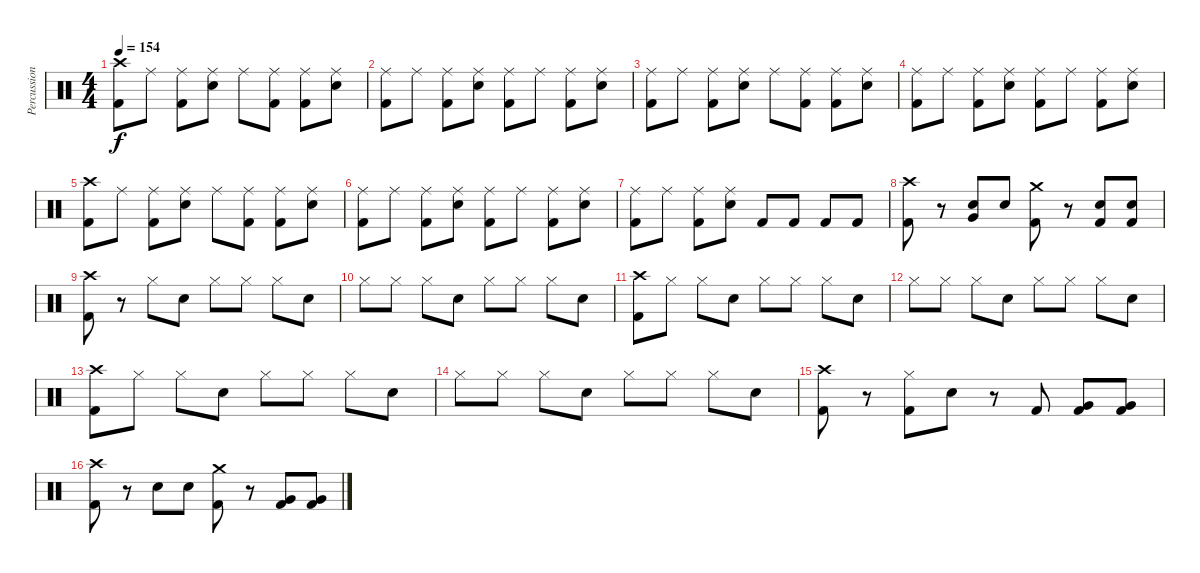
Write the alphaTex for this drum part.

\track ("Percussion" "Percussion") {instrument percussion}
\staff {score}
\articulation defaults
\ts (4 4)
\tempo 154
\clef neutral
\ks c
("Crash high (hit)" "Kick (hit) 2").8{dy f} "Ride (middle)".8 ("Ride (middle)" "Kick (hit) 2").8 ("Ride (middle)" "Electric Snare (hit)").8 "Ride (middle)".8 ("Ride (middle)" "Kick (hit) 2").8 ("Ride (middle)" "Kick (hit) 2").8 ("Ride (middle)" "Electric Snare (hit)").8 |
("Ride (middle)" "Kick (hit) 2").8 "Ride (middle)".8 ("Ride (middle)" "Kick (hit) 2").8 ("Ride (middle)" "Electric Snare (hit)").8 ("Ride (middle)" "Kick (hit) 2").8 "Ride (middle)".8 ("Ride (middle)" "Kick (hit) 2").8 ("Ride (middle)" "Electric Snare (hit)").8 |
("Ride (middle)" "Kick (hit) 2").8 "Ride (middle)".8 ("Ride (middle)" "Kick (hit) 2").8 ("Ride (middle)" "Electric Snare (hit)").8 "Ride (middle)".8 ("Ride (middle)" "Kick (hit) 2").8 ("Ride (middle)" "Kick (hit) 2").8 ("Ride (middle)" "Electric Snare (hit)").8 |
("Ride (middle)" "Kick (hit) 2").8 "Ride (middle)".8 ("Ride (middle)" "Kick (hit) 2").8 ("Ride (middle)" "Electric Snare (hit)").8 ("Ride (middle)" "Kick (hit) 2").8 "Ride (middle)".8 ("Ride (middle)" "Kick (hit) 2").8 ("Ride (middle)" "Electric Snare (hit)").8 |
("Crash high (hit)" "Kick (hit) 2").8 "Ride (middle)".8 ("Ride (middle)" "Kick (hit) 2").8 ("Ride (middle)" "Electric Snare (hit)").8 "Ride (middle)".8 ("Ride (middle)" "Kick (hit) 2").8 ("Ride (middle)" "Kick (hit) 2").8 ("Ride (middle)" "Electric Snare (hit)").8 |
("Ride (middle)" "Kick (hit) 2").8 "Ride (middle)".8 ("Ride (middle)" "Kick (hit) 2").8 ("Ride (middle)" "Electric Snare (hit)").8 ("Ride (middle)" "Kick (hit) 2").8 "Ride (middle)".8 ("Ride (middle)" "Kick (hit) 2").8 ("Ride (middle)" "Electric Snare (hit)").8 |
("Ride (middle)" "Kick (hit) 2").8 "Ride (middle)".8 ("Ride (middle)" "Kick (hit) 2").8 ("Ride (middle)" "Electric Snare (hit)").8 "Kick (hit) 2".8 "Kick (hit) 2".8 "Kick (hit) 2".8 "Kick (hit) 2".8 |
("Crash high (hit)" "Kick (hit) 2").8 r.8 ("Electric Snare (hit)" "Very Low Tom (hit)").8 "Electric Snare (hit)".8 ("Crash medium (hit)" "Kick (hit) 2").8 r.8 ("Electric Snare (hit)" "Kick (hit) 2").8 ("Electric Snare (hit)" "Kick (hit) 2").8 |
("Crash high (hit)" "Kick (hit) 2").8 r.8 "Hi-Hat (closed)".8 "Electric Snare (hit)".8 "Hi-Hat (closed)".8 "Hi-Hat (closed)".8 "Hi-Hat (closed)".8 "Electric Snare (hit)".8 |
"Hi-Hat (closed)".8 "Hi-Hat (closed)".8 "Hi-Hat (closed)".8 "Electric Snare (hit)".8 "Hi-Hat (closed)".8 "Hi-Hat (closed)".8 "Hi-Hat (closed)".8 "Electric Snare (hit)".8 |
("Crash high (hit)" "Kick (hit) 2").8 "Hi-Hat (closed)".8 "Hi-Hat (closed)".8 "Electric Snare (hit)".8 "Hi-Hat (closed)".8 "Hi-Hat (closed)".8 "Hi-Hat (closed)".8 "Electric Snare (hit)".8 |
"Hi-Hat (closed)".8 "Hi-Hat (closed)".8 "Hi-Hat (closed)".8 "Electric Snare (hit)".8 "Hi-Hat (closed)".8 "Hi-Hat (closed)".8 "Hi-Hat (closed)".8 "Electric Snare (hit)".8 |
("Crash high (hit)" "Kick (hit) 2").8 "Hi-Hat (closed)".8 "Hi-Hat (closed)".8 "Electric Snare (hit)".8 "Hi-Hat (closed)".8 "Hi-Hat (closed)".8 "Hi-Hat (closed)".8 "Electric Snare (hit)".8 |
"Hi-Hat (closed)".8 "Hi-Hat (closed)".8 "Hi-Hat (closed)".8 "Electric Snare (hit)".8 "Hi-Hat (closed)".8 "Hi-Hat (closed)".8 "Hi-Hat (closed)".8 "Electric Snare (hit)".8 |
("Crash high (hit)" "Kick (hit) 2").8 r.8 ("Hi-Hat (closed)" "Kick (hit) 2").8 "Electric Snare (hit)".8 r.8 "Kick (hit) 2".8 ("Very Low Tom (hit)" "Kick (hit) 2").8 ("Very Low Tom (hit)" "Kick (hit) 2").8 |
("Crash high (hit)" "Kick (hit) 2").8 r.8 "Electric Snare (hit)".8 "Electric Snare (hit)".8 ("Crash medium (hit)" "Kick (hit) 2").8 r.8 ("Very Low Tom (hit)" "Kick (hit) 2").8 ("Very Low Tom (hit)" "Kick (hit) 2").8
